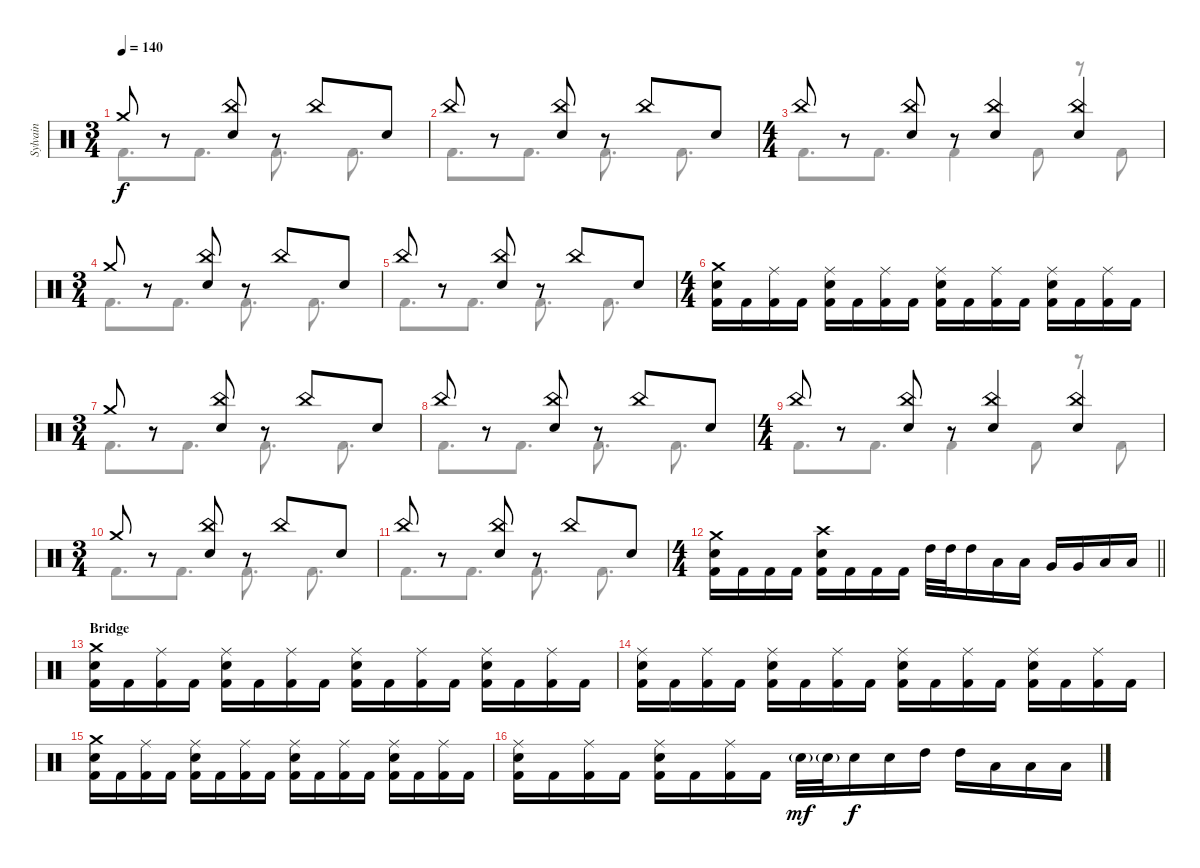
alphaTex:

\track ("Sylvain" "Sylvain") {instrument percussion}
\staff {score}
\articulation defaults
\voice
\ts (3 4)
\tempo 140
\clef neutral
\ks c "Crash medium (hit)".8{dy f}
r.8 ("China (hit)" "Snare (hit) 2").8 r.8 "China (hit)".8 "Snare (hit) 2".8 |
"China (hit)".8 r.8 ("China (hit)" "Snare (hit) 2").8 r.8 "China (hit)".8 "Snare (hit) 2".8 |
\ts (4 4)
"China (hit)".8 r.8 ("China (hit)" "Snare (hit) 2").8 r.8 ("China (hit)" "Snare (hit) 2").4 ("China (hit)" "Snare (hit) 2").4 |
\ts (3 4)
"Crash medium (hit)".8 r.8 ("China (hit)" "Snare (hit) 2").8 r.8 "China (hit)".8 "Snare (hit) 2".8 |
"China (hit)".8 r.8 ("China (hit)" "Snare (hit) 2").8 r.8 "China (hit)".8 "Snare (hit) 2".8 |
\ts (4 4)
("Crash medium (hit)" "Snare (hit) 2" "Kick (hit) 2").16 "Kick (hit) 2".16 ("Ride (middle)" "Kick (hit) 2").16 "Kick (hit) 2".16 ("Ride (middle)" "Snare (hit) 2" "Kick (hit) 2").16 "Kick (hit) 2".16 ("Ride (middle)" "Kick (hit) 2").16 "Kick (hit) 2".16 ("Ride (middle)" "Snare (hit) 2" "Kick (hit) 2").16 "Kick (hit) 2".16 ("Ride (middle)" "Kick (hit) 2").16 "Kick (hit) 2".16 ("Ride (middle)" "Snare (hit) 2" "Kick (hit) 2").16 "Kick (hit) 2".16 ("Ride (middle)" "Kick (hit) 2").16 "Kick (hit) 2".16 |
\ts (3 4)
"Crash medium (hit)".8 r.8 ("China (hit)" "Snare (hit) 2").8 r.8 "China (hit)".8 "Snare (hit) 2".8 |
"China (hit)".8 r.8 ("China (hit)" "Snare (hit) 2").8 r.8 "China (hit)".8 "Snare (hit) 2".8 |
\ts (4 4)
"China (hit)".8 r.8 ("China (hit)" "Snare (hit) 2").8 r.8 ("China (hit)" "Snare (hit) 2").4 ("China (hit)" "Snare (hit) 2").4 |
\ts (3 4)
"Crash medium (hit)".8 r.8 ("China (hit)" "Snare (hit) 2").8 r.8 "China (hit)".8 "Snare (hit) 2".8 |
"China (hit)".8 r.8 ("China (hit)" "Snare (hit) 2").8 r.8 "China (hit)".8 "Snare (hit) 2".8 |
\ts (4 4)
\barLineRight lightlight
("Crash medium (hit)" "Snare (hit) 2" "Kick (hit) 2").16 "Kick (hit) 2".16 "Kick (hit) 2".16 "Kick (hit) 2".16 ("Crash high (hit)" "Snare (hit) 2" "Kick (hit) 2").16 "Kick (hit) 2".16 "Kick (hit) 2".16 "Kick (hit) 2".16 "High Tom (hit)".32 "High Tom (hit)".32 "High Tom (hit)".16 "Low Tom (hit)".16 "Low Tom (hit)".16 "Very Low Tom (hit)".16 "Very Low Tom (hit)".16 "Low Floor Tom (hit)".16 "Low Floor Tom (hit)".16 |
\section ("" "Bridge")
("Crash medium (hit)" "Snare (hit) 2" "Kick (hit) 2").16 "Kick (hit) 2".16 ("Ride (middle)" "Kick (hit) 2").16 "Kick (hit) 2".16 ("Ride (middle)" "Snare (hit) 2" "Kick (hit) 2").16 "Kick (hit) 2".16 ("Ride (middle)" "Kick (hit) 2").16 "Kick (hit) 2".16 ("Ride (middle)" "Snare (hit) 2" "Kick (hit) 2").16 "Kick (hit) 2".16 ("Ride (middle)" "Kick (hit) 2").16 "Kick (hit) 2".16 ("Ride (middle)" "Snare (hit) 2" "Kick (hit) 2").16 "Kick (hit) 2".16 ("Ride (middle)" "Kick (hit) 2").16 "Kick (hit) 2".16 |
("Ride (middle)" "Snare (hit) 2" "Kick (hit) 2").16 "Kick (hit) 2".16 ("Ride (middle)" "Kick (hit) 2").16 "Kick (hit) 2".16 ("Ride (middle)" "Snare (hit) 2" "Kick (hit) 2").16 "Kick (hit) 2".16 ("Ride (middle)" "Kick (hit) 2").16 "Kick (hit) 2".16 ("Ride (middle)" "Snare (hit) 2" "Kick (hit) 2").16 "Kick (hit) 2".16 ("Ride (middle)" "Kick (hit) 2").16 "Kick (hit) 2".16 ("Ride (middle)" "Snare (hit) 2" "Kick (hit) 2").16 "Kick (hit) 2".16 ("Ride (middle)" "Kick (hit) 2").16 "Kick (hit) 2".16 |
("Crash medium (hit)" "Snare (hit) 2" "Kick (hit) 2").16 "Kick (hit) 2".16 ("Ride (middle)" "Kick (hit) 2").16 "Kick (hit) 2".16 ("Ride (middle)" "Snare (hit) 2" "Kick (hit) 2").16 "Kick (hit) 2".16 ("Ride (middle)" "Kick (hit) 2").16 "Kick (hit) 2".16 ("Ride (middle)" "Snare (hit) 2" "Kick (hit) 2").16 "Kick (hit) 2".16 ("Ride (middle)" "Kick (hit) 2").16 "Kick (hit) 2".16 ("Ride (middle)" "Snare (hit) 2" "Kick (hit) 2").16 "Kick (hit) 2".16 ("Ride (middle)" "Kick (hit) 2").16 "Kick (hit) 2".16 |
("Ride (middle)" "Snare (hit) 2" "Kick (hit) 2").16 "Kick (hit) 2".16 ("Ride (middle)" "Kick (hit) 2").16 "Kick (hit) 2".16 ("Ride (middle)" "Snare (hit) 2" "Kick (hit) 2").16 "Kick (hit) 2".16 ("Ride (middle)" "Kick (hit) 2").16 "Kick (hit) 2".16 "Snare (hit) 2"{g}.32{dy mf} "Snare (hit) 2"{g}.32 "Snare (hit) 2".16{dy f} "Snare (hit) 2".16 "High Tom (hit)".16 "High Tom (hit)".16 "Low Tom (hit)".16 "Low Tom (hit)".16 "Low Floor Tom (hit)".16
\voice
\clef neutral
\ottava regular
\simile none
\ks c "Kick (hit) 2".8{d dy f} "Kick (hit) 2".8{d} "Kick (hit) 2".8{d} "Kick (hit) 2".8{d}
|
"Kick (hit) 2".8{d} "Kick (hit) 2".8{d} "Kick (hit) 2".8{d} "Kick (hit) 2".8{d} |
"Kick (hit) 2".8{d} "Kick (hit) 2".8{d} "Kick (hit) 2".4 "Kick (hit) 2".8 r.8 "Kick (hit) 2".8 |
"Kick (hit) 2".8{d} "Kick (hit) 2".8{d} "Kick (hit) 2".8{d} "Kick (hit) 2".8{d} |
"Kick (hit) 2".8{d} "Kick (hit) 2".8{d} "Kick (hit) 2".8{d} "Kick (hit) 2".8{d} |
|
"Kick (hit) 2".8{d} "Kick (hit) 2".8{d} "Kick (hit) 2".8{d} "Kick (hit) 2".8{d} |
"Kick (hit) 2".8{d} "Kick (hit) 2".8{d} "Kick (hit) 2".8{d} "Kick (hit) 2".8{d} |
"Kick (hit) 2".8{d} "Kick (hit) 2".8{d} "Kick (hit) 2".4 "Kick (hit) 2".8 r.8 "Kick (hit) 2".8 |
"Kick (hit) 2".8{d} "Kick (hit) 2".8{d} "Kick (hit) 2".8{d} "Kick (hit) 2".8{d} |
"Kick (hit) 2".8{d} "Kick (hit) 2".8{d} "Kick (hit) 2".8{d} "Kick (hit) 2".8{d} |
\barLineRight lightlight
|
|
|
|
